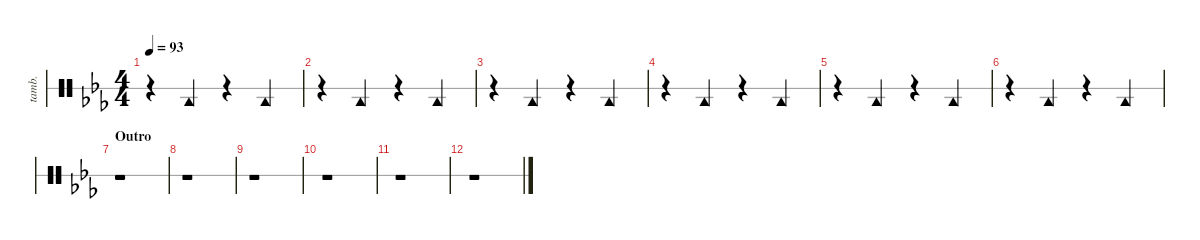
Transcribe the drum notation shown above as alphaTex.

\defaultSystemsLayout 4
\hideDynamics
\bracketExtendMode nobrackets
\otherSystemsTrackNameOrientation horizontal
\track ("Tambourine" "tamb.") {instrument percussion}
\staff {score 1}
\articulation defaults
\ts (4 4)
\tempo 93
\clef neutral
\ks cminor
r.4{dy p} "Tambourine (hit)"{acc forcenatural}.4 r.4 "Tambourine (hit)"{acc forcenatural}.4 |
r.4 "Tambourine (hit)"{acc forcenatural}.4 r.4 "Tambourine (hit)"{acc forcenatural}.4 |
r.4 "Tambourine (hit)"{acc forcenatural}.4 r.4 "Tambourine (hit)"{acc forcenatural}.4 |
r.4 "Tambourine (hit)"{acc forcenatural}.4 r.4 "Tambourine (hit)"{acc forcenatural}.4 |
r.4 "Tambourine (hit)"{acc forcenatural}.4 r.4 "Tambourine (hit)"{acc forcenatural}.4 |
r.4 "Tambourine (hit)"{acc forcenatural}.4 r.4 "Tambourine (hit)"{acc forcenatural}.4 |
\section ("" "Outro")
r.1 |
r.1 |
r.1 |
r.1 |
r.1 |
r.1
